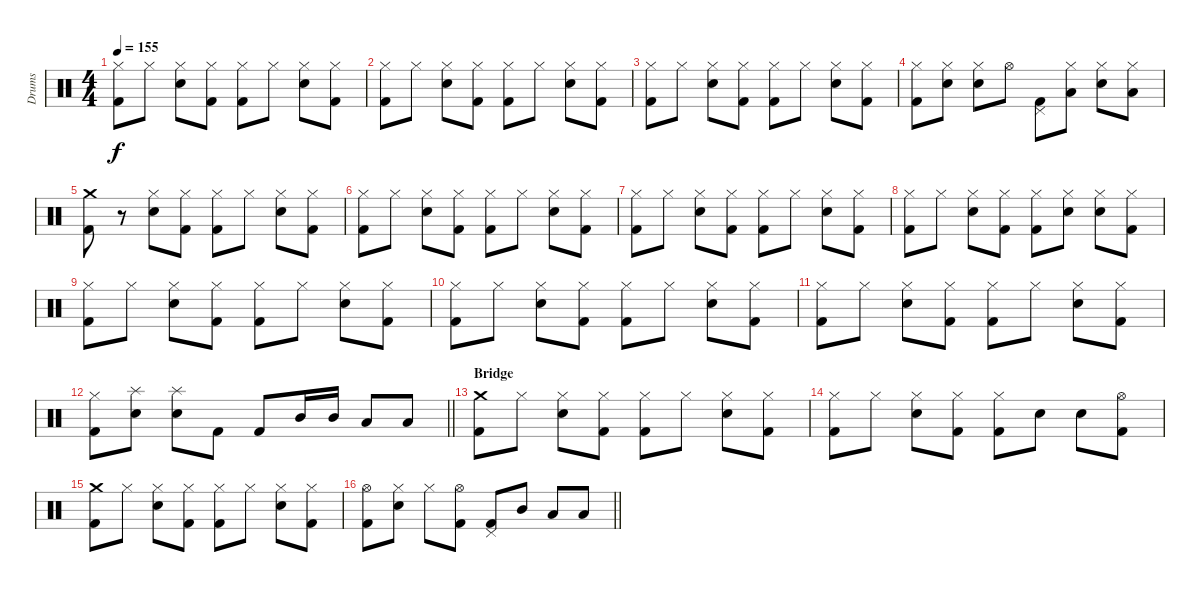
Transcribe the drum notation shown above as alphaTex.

\track ("Drums" "Drums") {instrument percussion}
\staff {score}
\articulation defaults
\ts (4 4)
\tempo 155
\clef neutral
\ks c
("Hi-Hat (closed)" "Kick (hit) 2").8{dy f} "Hi-Hat (closed)".8 ("Hi-Hat (closed)" "Snare (hit) 2").8 ("Hi-Hat (closed)" "Kick (hit) 2").8 ("Hi-Hat (closed)" "Kick (hit) 2").8 "Hi-Hat (closed)".8 ("Hi-Hat (closed)" "Snare (hit) 2").8 ("Hi-Hat (closed)" "Kick (hit) 2").8 |
("Hi-Hat (closed)" "Kick (hit) 2").8 "Hi-Hat (closed)".8 ("Hi-Hat (closed)" "Snare (hit) 2").8 ("Hi-Hat (closed)" "Kick (hit) 2").8 ("Hi-Hat (closed)" "Kick (hit) 2").8 "Hi-Hat (closed)".8 ("Hi-Hat (closed)" "Snare (hit) 2").8 ("Hi-Hat (closed)" "Kick (hit) 2").8 |
("Hi-Hat (closed)" "Kick (hit) 2").8 "Hi-Hat (closed)".8 ("Hi-Hat (closed)" "Snare (hit) 2").8 ("Hi-Hat (closed)" "Kick (hit) 2").8 ("Hi-Hat (closed)" "Kick (hit) 2").8 "Hi-Hat (closed)".8 ("Hi-Hat (closed)" "Snare (hit) 2").8 ("Hi-Hat (closed)" "Kick (hit) 2").8 |
("Hi-Hat (closed)" "Kick (hit) 2").8 ("Hi-Hat (closed)" "Snare (hit) 2").8 ("Hi-Hat (closed)" "Snare (hit) 2").8 "Hi-Hat (open)".8 ("Pedal Hi-Hat (hit)" "Kick (hit) 2").8 ("Hi-Hat (closed)" "Low Tom (hit)").8 ("Hi-Hat (closed)" "Snare (hit) 2").8 ("Hi-Hat (closed)" "Low Tom (hit)").8 |
("Crash medium (hit)" "Kick (hit) 2").8 r.8 ("Hi-Hat (closed)" "Snare (hit) 2").8 ("Hi-Hat (closed)" "Kick (hit) 2").8 ("Hi-Hat (closed)" "Kick (hit) 2").8 "Hi-Hat (closed)".8 ("Hi-Hat (closed)" "Snare (hit) 2").8 ("Hi-Hat (closed)" "Kick (hit) 2").8 |
("Hi-Hat (closed)" "Kick (hit) 2").8 "Hi-Hat (closed)".8 ("Hi-Hat (closed)" "Snare (hit) 2").8 ("Hi-Hat (closed)" "Kick (hit) 2").8 ("Hi-Hat (closed)" "Kick (hit) 2").8 "Hi-Hat (closed)".8 ("Hi-Hat (closed)" "Snare (hit) 2").8 ("Hi-Hat (closed)" "Kick (hit) 2").8 |
("Hi-Hat (closed)" "Kick (hit) 2").8 "Hi-Hat (closed)".8 ("Hi-Hat (closed)" "Snare (hit) 2").8 ("Hi-Hat (closed)" "Kick (hit) 2").8 ("Hi-Hat (closed)" "Kick (hit) 2").8 "Hi-Hat (closed)".8 ("Hi-Hat (closed)" "Snare (hit) 2").8 ("Hi-Hat (closed)" "Kick (hit) 2").8 |
("Hi-Hat (closed)" "Kick (hit) 2").8 "Hi-Hat (closed)".8 ("Hi-Hat (closed)" "Snare (hit) 2").8 ("Hi-Hat (closed)" "Kick (hit) 2").8 ("Hi-Hat (closed)" "Kick (hit) 2").8 ("Hi-Hat (closed)" "Hand Clap (hit)").8 ("Hi-Hat (closed)" "Snare (hit) 2").8 ("Hi-Hat (closed)" "Kick (hit) 2").8 |
("Hi-Hat (closed)" "Kick (hit) 2").8 "Hi-Hat (closed)".8 ("Hi-Hat (closed)" "Snare (hit) 2").8 ("Hi-Hat (closed)" "Kick (hit) 2").8 ("Hi-Hat (closed)" "Kick (hit) 2").8 "Hi-Hat (closed)".8 ("Hi-Hat (closed)" "Snare (hit) 2").8 ("Hi-Hat (closed)" "Kick (hit) 2").8 |
("Hi-Hat (closed)" "Kick (hit) 2").8 "Hi-Hat (closed)".8 ("Hi-Hat (closed)" "Snare (hit) 2").8 ("Hi-Hat (closed)" "Kick (hit) 2").8 ("Hi-Hat (closed)" "Kick (hit) 2").8 "Hi-Hat (closed)".8 ("Hi-Hat (closed)" "Snare (hit) 2").8 ("Hi-Hat (closed)" "Kick (hit) 2").8 |
("Hi-Hat (closed)" "Kick (hit) 2").8 "Hi-Hat (closed)".8 ("Hi-Hat (closed)" "Snare (hit) 2").8 ("Hi-Hat (closed)" "Kick (hit) 2").8 ("Hi-Hat (closed)" "Kick (hit) 2").8 "Hi-Hat (closed)".8 ("Hi-Hat (closed)" "Snare (hit) 2").8 ("Hi-Hat (closed)" "Kick (hit) 2").8 |
\barLineRight lightlight
("Hi-Hat (closed)" "Kick (hit) 2").8 ("Splash (hit)" "Snare (hit) 2").8 ("Splash (hit)" "Snare (hit) 2").8 "Kick (hit) 2".8 "Kick (hit) 2".8 "Mid Tom (hit)".16 "Mid Tom (hit)".16 "Low Tom (hit)".8 "Low Floor Tom (hit)".8 |
\section ("" "Bridge")
("Crash medium (hit)" "Kick (hit) 2").8 "Hi-Hat (closed)".8 ("Hi-Hat (closed)" "Snare (hit) 2").8 ("Hi-Hat (closed)" "Kick (hit) 2").8 ("Hi-Hat (closed)" "Kick (hit) 2").8 "Hi-Hat (closed)".8 ("Hi-Hat (closed)" "Snare (hit) 2").8 ("Hi-Hat (closed)" "Kick (hit) 2").8 |
("Hi-Hat (closed)" "Kick (hit) 2").8 "Hi-Hat (closed)".8 ("Hi-Hat (closed)" "Snare (hit) 2").8 ("Hi-Hat (closed)" "Kick (hit) 2").8 ("Hi-Hat (closed)" "Kick (hit) 2").8 "Snare (hit) 2".8 "Snare (hit) 2".8 ("Hi-Hat (open)" "Kick (hit) 2").8 |
("Crash medium (hit)" "Kick (hit) 2").8 "Hi-Hat (closed)".8 ("Hi-Hat (closed)" "Snare (hit) 2").8 ("Hi-Hat (closed)" "Kick (hit) 2").8 ("Hi-Hat (closed)" "Kick (hit) 2").8 "Hi-Hat (closed)".8 ("Hi-Hat (closed)" "Snare (hit) 2").8 ("Hi-Hat (closed)" "Kick (hit) 2").8 |
\barLineRight lightlight
("Hi-Hat (open)" "Kick (hit) 2").8 ("Hi-Hat (closed)" "Snare (hit) 2").8 "Hi-Hat (closed)".8 ("Hi-Hat (open)" "Kick (hit) 2").8 ("Pedal Hi-Hat (hit)" "Kick (hit) 2").8 "Mid Tom (hit)".8 "Low Tom (hit)".8 "Low Floor Tom (hit)".8
